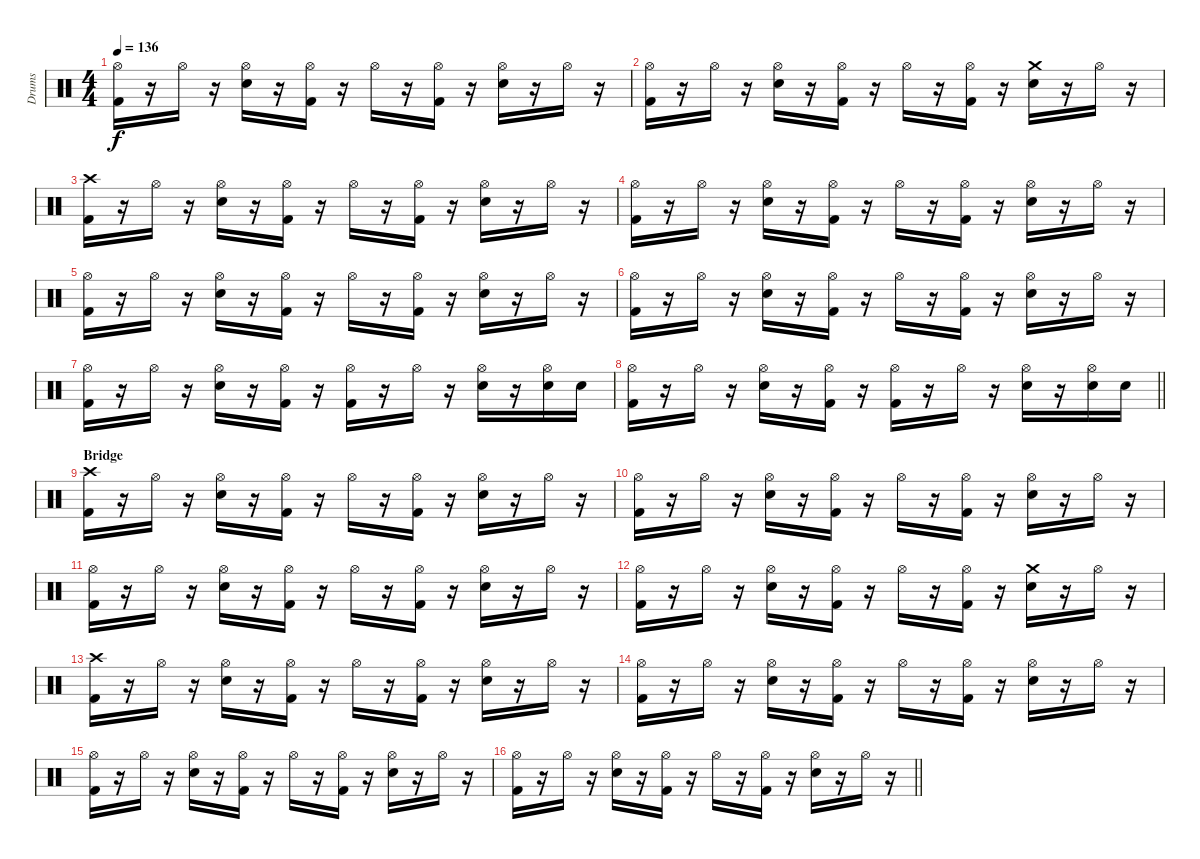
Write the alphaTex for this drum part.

\track ("Drums" "Drums") {instrument percussion}
\staff {score}
\articulation defaults
\ts (4 4)
\tempo 136
\clef neutral
\ks c
("Kick (hit) 2" "Hi-Hat (open)").16{dy f} r.16 "Hi-Hat (open)".16 r.16 ("Electric Snare (hit)" "Hi-Hat (open)").16 r.16 ("Kick (hit) 2" "Hi-Hat (open)").16 r.16 "Hi-Hat (open)".16 r.16 ("Kick (hit) 2" "Hi-Hat (open)").16 r.16 ("Electric Snare (hit)" "Hi-Hat (open)").16 r.16 "Hi-Hat (open)".16 r.16 |
("Kick (hit) 2" "Hi-Hat (open)").16 r.16 "Hi-Hat (open)".16 r.16 ("Electric Snare (hit)" "Hi-Hat (open)").16 r.16 ("Kick (hit) 2" "Hi-Hat (open)").16 r.16 "Hi-Hat (open)".16 r.16 ("Kick (hit) 2" "Hi-Hat (open)").16 r.16 ("Electric Snare (hit)" "Crash medium (hit)").16 r.16 "Hi-Hat (open)".16 r.16 |
("Kick (hit) 2" "Crash high (hit)").16 r.16 "Hi-Hat (open)".16 r.16 ("Electric Snare (hit)" "Hi-Hat (open)").16 r.16 ("Kick (hit) 2" "Hi-Hat (open)").16 r.16 "Hi-Hat (open)".16 r.16 ("Kick (hit) 2" "Hi-Hat (open)").16 r.16 ("Electric Snare (hit)" "Hi-Hat (open)").16 r.16 "Hi-Hat (open)".16 r.16 |
("Kick (hit) 2" "Hi-Hat (open)").16 r.16 "Hi-Hat (open)".16 r.16 ("Electric Snare (hit)" "Hi-Hat (open)").16 r.16 ("Kick (hit) 2" "Hi-Hat (open)").16 r.16 "Hi-Hat (open)".16 r.16 ("Kick (hit) 2" "Hi-Hat (open)").16 r.16 ("Electric Snare (hit)" "Hi-Hat (open)").16 r.16 "Hi-Hat (open)".16 r.16 |
("Kick (hit) 2" "Hi-Hat (open)").16 r.16 "Hi-Hat (open)".16 r.16 ("Electric Snare (hit)" "Hi-Hat (open)").16 r.16 ("Kick (hit) 2" "Hi-Hat (open)").16 r.16 "Hi-Hat (open)".16 r.16 ("Kick (hit) 2" "Hi-Hat (open)").16 r.16 ("Electric Snare (hit)" "Hi-Hat (open)").16 r.16 "Hi-Hat (open)".16 r.16 |
("Kick (hit) 2" "Hi-Hat (open)").16 r.16 "Hi-Hat (open)".16 r.16 ("Electric Snare (hit)" "Hi-Hat (open)").16 r.16 ("Kick (hit) 2" "Hi-Hat (open)").16 r.16 "Hi-Hat (open)".16 r.16 ("Kick (hit) 2" "Hi-Hat (open)").16 r.16 ("Electric Snare (hit)" "Hi-Hat (open)").16 r.16 "Hi-Hat (open)".16 r.16 |
("Kick (hit) 2" "Hi-Hat (open)").16 r.16 "Hi-Hat (open)".16 r.16 ("Electric Snare (hit)" "Hi-Hat (open)").16 r.16 ("Kick (hit) 2" "Hi-Hat (open)").16 r.16 ("Kick (hit) 2" "Hi-Hat (open)").16 r.16 "Hi-Hat (open)".16 r.16 ("Electric Snare (hit)" "Hi-Hat (open)").16 r.16 ("Electric Snare (hit)" "Hi-Hat (open)").16 "Electric Snare (hit)".16 |
\barLineRight lightlight
("Kick (hit) 2" "Hi-Hat (open)").16 r.16 "Hi-Hat (open)".16 r.16 ("Electric Snare (hit)" "Hi-Hat (open)").16 r.16 ("Kick (hit) 2" "Hi-Hat (open)").16 r.16 ("Kick (hit) 2" "Hi-Hat (open)").16 r.16 "Hi-Hat (open)".16 r.16 ("Electric Snare (hit)" "Hi-Hat (open)").16 r.16 ("Electric Snare (hit)" "Hi-Hat (open)").16 "Electric Snare (hit)".16 |
\section ("" "Bridge")
("Kick (hit) 2" "Crash high (hit)").16 r.16 "Hi-Hat (open)".16 r.16 ("Electric Snare (hit)" "Hi-Hat (open)").16 r.16 ("Kick (hit) 2" "Hi-Hat (open)").16 r.16 "Hi-Hat (open)".16 r.16 ("Kick (hit) 2" "Hi-Hat (open)").16 r.16 ("Electric Snare (hit)" "Hi-Hat (open)").16 r.16 "Hi-Hat (open)".16 r.16 |
("Kick (hit) 2" "Hi-Hat (open)").16 r.16 "Hi-Hat (open)".16 r.16 ("Electric Snare (hit)" "Hi-Hat (open)").16 r.16 ("Kick (hit) 2" "Hi-Hat (open)").16 r.16 "Hi-Hat (open)".16 r.16 ("Kick (hit) 2" "Hi-Hat (open)").16 r.16 ("Electric Snare (hit)" "Hi-Hat (open)").16 r.16 "Hi-Hat (open)".16 r.16 |
("Kick (hit) 2" "Hi-Hat (open)").16 r.16 "Hi-Hat (open)".16 r.16 ("Electric Snare (hit)" "Hi-Hat (open)").16 r.16 ("Kick (hit) 2" "Hi-Hat (open)").16 r.16 "Hi-Hat (open)".16 r.16 ("Kick (hit) 2" "Hi-Hat (open)").16 r.16 ("Electric Snare (hit)" "Hi-Hat (open)").16 r.16 "Hi-Hat (open)".16 r.16 |
("Kick (hit) 2" "Hi-Hat (open)").16 r.16 "Hi-Hat (open)".16 r.16 ("Electric Snare (hit)" "Hi-Hat (open)").16 r.16 ("Kick (hit) 2" "Hi-Hat (open)").16 r.16 "Hi-Hat (open)".16 r.16 ("Kick (hit) 2" "Hi-Hat (open)").16 r.16 ("Electric Snare (hit)" "Crash medium (hit)").16 r.16 "Hi-Hat (open)".16 r.16 |
("Kick (hit) 2" "Crash high (hit)").16 r.16 "Hi-Hat (open)".16 r.16 ("Electric Snare (hit)" "Hi-Hat (open)").16 r.16 ("Kick (hit) 2" "Hi-Hat (open)").16 r.16 "Hi-Hat (open)".16 r.16 ("Kick (hit) 2" "Hi-Hat (open)").16 r.16 ("Electric Snare (hit)" "Hi-Hat (open)").16 r.16 "Hi-Hat (open)".16 r.16 |
("Kick (hit) 2" "Hi-Hat (open)").16 r.16 "Hi-Hat (open)".16 r.16 ("Electric Snare (hit)" "Hi-Hat (open)").16 r.16 ("Kick (hit) 2" "Hi-Hat (open)").16 r.16 "Hi-Hat (open)".16 r.16 ("Kick (hit) 2" "Hi-Hat (open)").16 r.16 ("Electric Snare (hit)" "Hi-Hat (open)").16 r.16 "Hi-Hat (open)".16 r.16 |
("Kick (hit) 2" "Hi-Hat (open)").16 r.16 "Hi-Hat (open)".16 r.16 ("Electric Snare (hit)" "Hi-Hat (open)").16 r.16 ("Kick (hit) 2" "Hi-Hat (open)").16 r.16 "Hi-Hat (open)".16 r.16 ("Kick (hit) 2" "Hi-Hat (open)").16 r.16 ("Electric Snare (hit)" "Hi-Hat (open)").16 r.16 "Hi-Hat (open)".16 r.16 |
\barLineRight lightlight
("Kick (hit) 2" "Hi-Hat (open)").16 r.16 "Hi-Hat (open)".16 r.16 ("Electric Snare (hit)" "Hi-Hat (open)").16 r.16 ("Kick (hit) 2" "Hi-Hat (open)").16 r.16 "Hi-Hat (open)".16 r.16 ("Kick (hit) 2" "Hi-Hat (open)").16 r.16 ("Electric Snare (hit)" "Hi-Hat (open)").16 r.16 "Hi-Hat (open)".16 r.16
